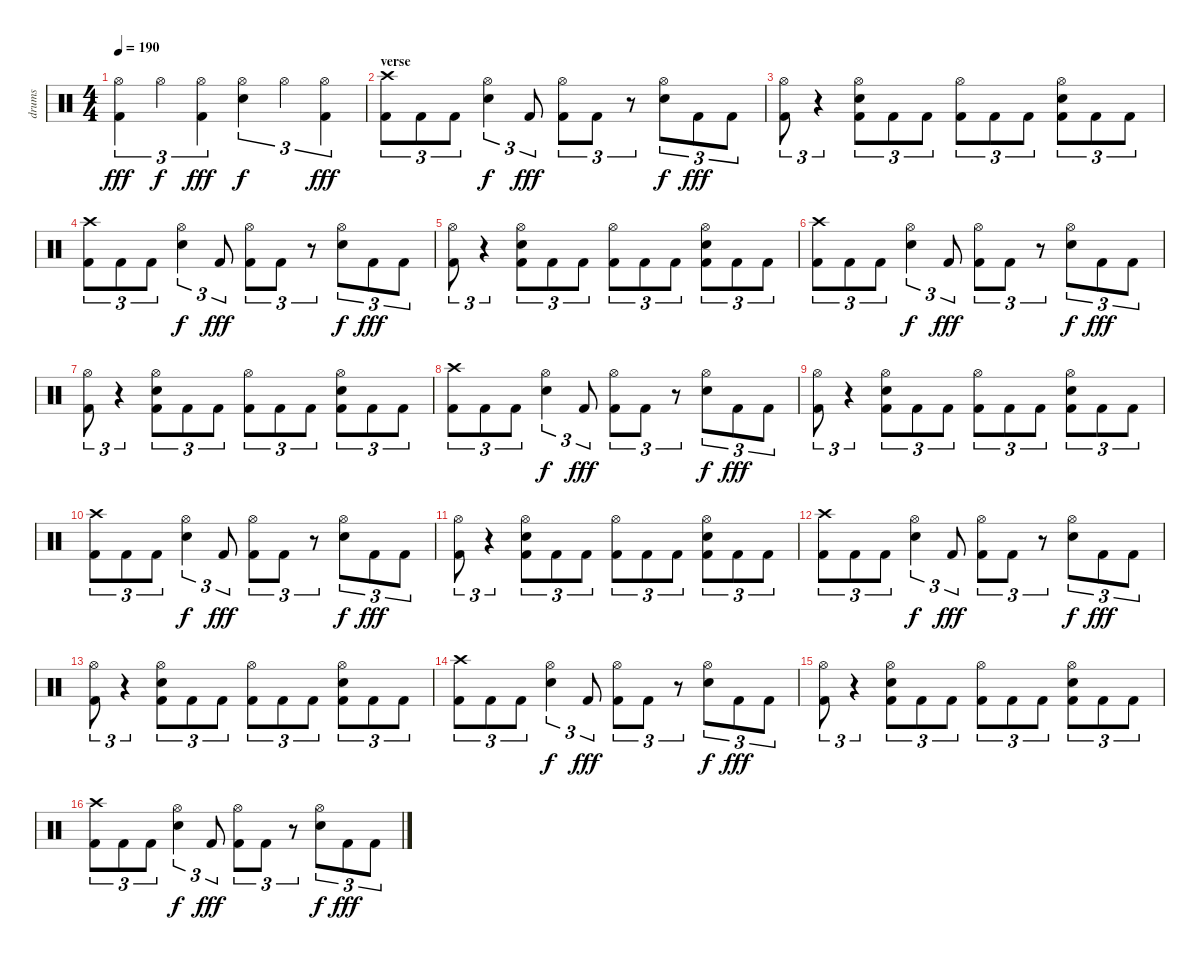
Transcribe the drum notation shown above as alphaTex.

\track ("drums" "drums") {instrument percussion}
\staff {score}
\articulation defaults
\ts (4 4)
\tempo 190
\clef neutral
\ks c
("Hi-Hat (open)" "Kick (hit) 2").4{tu (3 2) dy fff} "Hi-Hat (open)".4{tu (3 2) dy f} ("Hi-Hat (open)" "Kick (hit) 2").4{tu (3 2) dy fff} ("Hi-Hat (open)" "Snare (hit) 2").4{tu (3 2) dy f} "Hi-Hat (open)".4{tu (3 2)} ("Hi-Hat (open)" "Kick (hit) 2").4{tu (3 2) dy fff} |
\section ("" "verse")
("Crash high (hit)" "Kick (hit) 2").8{tu (3 2)} "Kick (hit) 2".8{tu (3 2)} "Kick (hit) 2".8{tu (3 2)} ("Hi-Hat (open)" "Snare (hit) 2").4{tu (3 2) dy f} "Kick (hit) 2".8{tu (3 2) dy fff} ("Hi-Hat (open)" "Kick (hit) 2").8{tu (3 2)} "Kick (hit) 2".8{tu (3 2)} r.8{tu (3 2)} ("Hi-Hat (open)" "Snare (hit) 2").8{tu (3 2) dy f} "Kick (hit) 2".8{tu (3 2) dy fff} "Kick (hit) 2".8{tu (3 2)} |
("Hi-Hat (open)" "Kick (hit) 2").8{tu (3 2)} r.4{tu (3 2)} ("Hi-Hat (open)" "Snare (hit) 2" "Kick (hit) 2").8{tu (3 2)} "Kick (hit) 2".8{tu (3 2)} "Kick (hit) 2".8{tu (3 2)} ("Hi-Hat (open)" "Kick (hit) 2").8{tu (3 2)} "Kick (hit) 2".8{tu (3 2)} "Kick (hit) 2".8{tu (3 2)} ("Hi-Hat (open)" "Snare (hit) 2" "Kick (hit) 2").8{tu (3 2)} "Kick (hit) 2".8{tu (3 2)} "Kick (hit) 2".8{tu (3 2)} |
("Crash high (hit)" "Kick (hit) 2").8{tu (3 2)} "Kick (hit) 2".8{tu (3 2)} "Kick (hit) 2".8{tu (3 2)} ("Hi-Hat (open)" "Snare (hit) 2").4{tu (3 2) dy f} "Kick (hit) 2".8{tu (3 2) dy fff} ("Hi-Hat (open)" "Kick (hit) 2").8{tu (3 2)} "Kick (hit) 2".8{tu (3 2)} r.8{tu (3 2)} ("Hi-Hat (open)" "Snare (hit) 2").8{tu (3 2) dy f} "Kick (hit) 2".8{tu (3 2) dy fff} "Kick (hit) 2".8{tu (3 2)} |
("Hi-Hat (open)" "Kick (hit) 2").8{tu (3 2)} r.4{tu (3 2)} ("Hi-Hat (open)" "Snare (hit) 2" "Kick (hit) 2").8{tu (3 2)} "Kick (hit) 2".8{tu (3 2)} "Kick (hit) 2".8{tu (3 2)} ("Hi-Hat (open)" "Kick (hit) 2").8{tu (3 2)} "Kick (hit) 2".8{tu (3 2)} "Kick (hit) 2".8{tu (3 2)} ("Hi-Hat (open)" "Snare (hit) 2" "Kick (hit) 2").8{tu (3 2)} "Kick (hit) 2".8{tu (3 2)} "Kick (hit) 2".8{tu (3 2)} |
("Crash high (hit)" "Kick (hit) 2").8{tu (3 2)} "Kick (hit) 2".8{tu (3 2)} "Kick (hit) 2".8{tu (3 2)} ("Hi-Hat (open)" "Snare (hit) 2").4{tu (3 2) dy f} "Kick (hit) 2".8{tu (3 2) dy fff} ("Hi-Hat (open)" "Kick (hit) 2").8{tu (3 2)} "Kick (hit) 2".8{tu (3 2)} r.8{tu (3 2)} ("Hi-Hat (open)" "Snare (hit) 2").8{tu (3 2) dy f} "Kick (hit) 2".8{tu (3 2) dy fff} "Kick (hit) 2".8{tu (3 2)} |
("Hi-Hat (open)" "Kick (hit) 2").8{tu (3 2)} r.4{tu (3 2)} ("Hi-Hat (open)" "Snare (hit) 2" "Kick (hit) 2").8{tu (3 2)} "Kick (hit) 2".8{tu (3 2)} "Kick (hit) 2".8{tu (3 2)} ("Hi-Hat (open)" "Kick (hit) 2").8{tu (3 2)} "Kick (hit) 2".8{tu (3 2)} "Kick (hit) 2".8{tu (3 2)} ("Hi-Hat (open)" "Snare (hit) 2" "Kick (hit) 2").8{tu (3 2)} "Kick (hit) 2".8{tu (3 2)} "Kick (hit) 2".8{tu (3 2)} |
("Crash high (hit)" "Kick (hit) 2").8{tu (3 2)} "Kick (hit) 2".8{tu (3 2)} "Kick (hit) 2".8{tu (3 2)} ("Hi-Hat (open)" "Snare (hit) 2").4{tu (3 2) dy f} "Kick (hit) 2".8{tu (3 2) dy fff} ("Hi-Hat (open)" "Kick (hit) 2").8{tu (3 2)} "Kick (hit) 2".8{tu (3 2)} r.8{tu (3 2)} ("Hi-Hat (open)" "Snare (hit) 2").8{tu (3 2) dy f} "Kick (hit) 2".8{tu (3 2) dy fff} "Kick (hit) 2".8{tu (3 2)} |
("Hi-Hat (open)" "Kick (hit) 2").8{tu (3 2)} r.4{tu (3 2)} ("Hi-Hat (open)" "Snare (hit) 2" "Kick (hit) 2").8{tu (3 2)} "Kick (hit) 2".8{tu (3 2)} "Kick (hit) 2".8{tu (3 2)} ("Hi-Hat (open)" "Kick (hit) 2").8{tu (3 2)} "Kick (hit) 2".8{tu (3 2)} "Kick (hit) 2".8{tu (3 2)} ("Hi-Hat (open)" "Snare (hit) 2" "Kick (hit) 2").8{tu (3 2)} "Kick (hit) 2".8{tu (3 2)} "Kick (hit) 2".8{tu (3 2)} |
("Crash high (hit)" "Kick (hit) 2").8{tu (3 2)} "Kick (hit) 2".8{tu (3 2)} "Kick (hit) 2".8{tu (3 2)} ("Hi-Hat (open)" "Snare (hit) 2").4{tu (3 2) dy f} "Kick (hit) 2".8{tu (3 2) dy fff} ("Hi-Hat (open)" "Kick (hit) 2").8{tu (3 2)} "Kick (hit) 2".8{tu (3 2)} r.8{tu (3 2)} ("Hi-Hat (open)" "Snare (hit) 2").8{tu (3 2) dy f} "Kick (hit) 2".8{tu (3 2) dy fff} "Kick (hit) 2".8{tu (3 2)} |
("Hi-Hat (open)" "Kick (hit) 2").8{tu (3 2)} r.4{tu (3 2)} ("Hi-Hat (open)" "Snare (hit) 2" "Kick (hit) 2").8{tu (3 2)} "Kick (hit) 2".8{tu (3 2)} "Kick (hit) 2".8{tu (3 2)} ("Hi-Hat (open)" "Kick (hit) 2").8{tu (3 2)} "Kick (hit) 2".8{tu (3 2)} "Kick (hit) 2".8{tu (3 2)} ("Hi-Hat (open)" "Snare (hit) 2" "Kick (hit) 2").8{tu (3 2)} "Kick (hit) 2".8{tu (3 2)} "Kick (hit) 2".8{tu (3 2)} |
("Crash high (hit)" "Kick (hit) 2").8{tu (3 2)} "Kick (hit) 2".8{tu (3 2)} "Kick (hit) 2".8{tu (3 2)} ("Hi-Hat (open)" "Snare (hit) 2").4{tu (3 2) dy f} "Kick (hit) 2".8{tu (3 2) dy fff} ("Hi-Hat (open)" "Kick (hit) 2").8{tu (3 2)} "Kick (hit) 2".8{tu (3 2)} r.8{tu (3 2)} ("Hi-Hat (open)" "Snare (hit) 2").8{tu (3 2) dy f} "Kick (hit) 2".8{tu (3 2) dy fff} "Kick (hit) 2".8{tu (3 2)} |
("Hi-Hat (open)" "Kick (hit) 2").8{tu (3 2)} r.4{tu (3 2)} ("Hi-Hat (open)" "Snare (hit) 2" "Kick (hit) 2").8{tu (3 2)} "Kick (hit) 2".8{tu (3 2)} "Kick (hit) 2".8{tu (3 2)} ("Hi-Hat (open)" "Kick (hit) 2").8{tu (3 2)} "Kick (hit) 2".8{tu (3 2)} "Kick (hit) 2".8{tu (3 2)} ("Hi-Hat (open)" "Snare (hit) 2" "Kick (hit) 2").8{tu (3 2)} "Kick (hit) 2".8{tu (3 2)} "Kick (hit) 2".8{tu (3 2)} |
("Crash high (hit)" "Kick (hit) 2").8{tu (3 2)} "Kick (hit) 2".8{tu (3 2)} "Kick (hit) 2".8{tu (3 2)} ("Hi-Hat (open)" "Snare (hit) 2").4{tu (3 2) dy f} "Kick (hit) 2".8{tu (3 2) dy fff} ("Hi-Hat (open)" "Kick (hit) 2").8{tu (3 2)} "Kick (hit) 2".8{tu (3 2)} r.8{tu (3 2)} ("Hi-Hat (open)" "Snare (hit) 2").8{tu (3 2) dy f} "Kick (hit) 2".8{tu (3 2) dy fff} "Kick (hit) 2".8{tu (3 2)} |
("Hi-Hat (open)" "Kick (hit) 2").8{tu (3 2)} r.4{tu (3 2)} ("Hi-Hat (open)" "Snare (hit) 2" "Kick (hit) 2").8{tu (3 2)} "Kick (hit) 2".8{tu (3 2)} "Kick (hit) 2".8{tu (3 2)} ("Hi-Hat (open)" "Kick (hit) 2").8{tu (3 2)} "Kick (hit) 2".8{tu (3 2)} "Kick (hit) 2".8{tu (3 2)} ("Hi-Hat (open)" "Snare (hit) 2" "Kick (hit) 2").8{tu (3 2)} "Kick (hit) 2".8{tu (3 2)} "Kick (hit) 2".8{tu (3 2)} |
("Crash high (hit)" "Kick (hit) 2").8{tu (3 2)} "Kick (hit) 2".8{tu (3 2)} "Kick (hit) 2".8{tu (3 2)} ("Hi-Hat (open)" "Snare (hit) 2").4{tu (3 2) dy f} "Kick (hit) 2".8{tu (3 2) dy fff} ("Hi-Hat (open)" "Kick (hit) 2").8{tu (3 2)} "Kick (hit) 2".8{tu (3 2)} r.8{tu (3 2)} ("Hi-Hat (open)" "Snare (hit) 2").8{tu (3 2) dy f} "Kick (hit) 2".8{tu (3 2) dy fff} "Kick (hit) 2".8{tu (3 2)}
